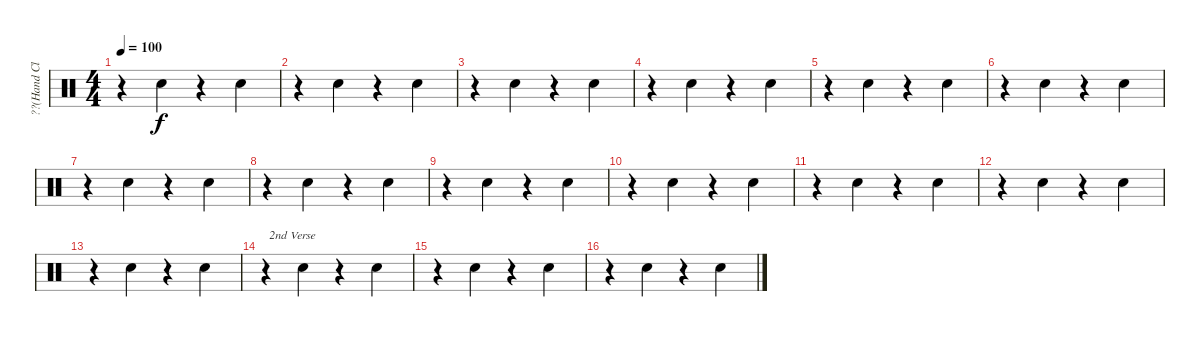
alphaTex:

\track ("??(Hand Clap)" "??(Hand Cl") {instrument percussion}
\staff {score}
\articulation defaults
\ts (4 4)
\tempo 100
\clef neutral
\ks c
r.4{dy f} "Hand Clap (hit)".4 r.4 "Hand Clap (hit)".4 |
r.4 "Hand Clap (hit)".4 r.4 "Hand Clap (hit)".4 |
r.4 "Hand Clap (hit)".4 r.4 "Hand Clap (hit)".4 |
r.4 "Hand Clap (hit)".4 r.4 "Hand Clap (hit)".4 |
r.4 "Hand Clap (hit)".4 r.4 "Hand Clap (hit)".4 |
r.4 "Hand Clap (hit)".4 r.4 "Hand Clap (hit)".4 |
r.4 "Hand Clap (hit)".4 r.4 "Hand Clap (hit)".4 |
r.4 "Hand Clap (hit)".4 r.4 "Hand Clap (hit)".4 |
r.4 "Hand Clap (hit)".4 r.4 "Hand Clap (hit)".4 |
r.4 "Hand Clap (hit)".4 r.4 "Hand Clap (hit)".4 |
r.4 "Hand Clap (hit)".4 r.4 "Hand Clap (hit)".4 |
r.4 "Hand Clap (hit)".4 r.4 "Hand Clap (hit)".4 |
r.4 "Hand Clap (hit)".4 r.4 "Hand Clap (hit)".4 |
r.4{txt " 2nd Verse"} "Hand Clap (hit)".4 r.4 "Hand Clap (hit)".4 |
r.4 "Hand Clap (hit)".4 r.4 "Hand Clap (hit)".4 |
r.4 "Hand Clap (hit)".4 r.4 "Hand Clap (hit)".4
